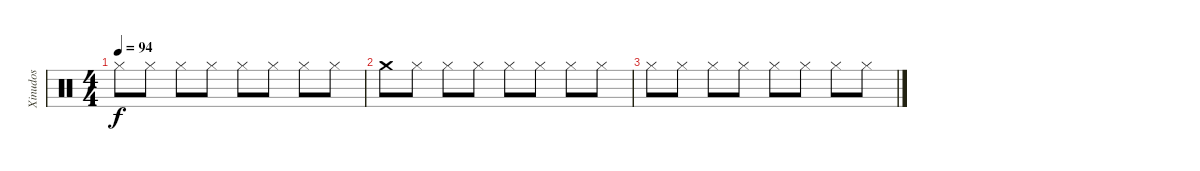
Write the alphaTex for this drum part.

\track ("Xinudos" "Xinudos") {instrument percussion}
\staff {score}
\articulation defaults
\ts (4 4)
\tempo 94
\clef neutral
\ks c "Hi-Hat (closed)".8{dy f} "Hi-Hat (closed)".8 "Hi-Hat (closed)".8 "Hi-Hat (closed)".8 "Hi-Hat (closed)".8 "Hi-Hat (closed)".8 "Hi-Hat (closed)".8 "Hi-Hat (closed)".8
|
"Crash medium (hit)".8 "Hi-Hat (closed)".8 "Hi-Hat (closed)".8 "Hi-Hat (closed)".8 "Hi-Hat (closed)".8 "Hi-Hat (closed)".8 "Hi-Hat (closed)".8 "Hi-Hat (closed)".8 |
"Hi-Hat (closed)".8 "Hi-Hat (closed)".8 "Hi-Hat (closed)".8 "Hi-Hat (closed)".8 "Hi-Hat (closed)".8 "Hi-Hat (closed)".8 "Hi-Hat (closed)".8 "Hi-Hat (closed)".8
